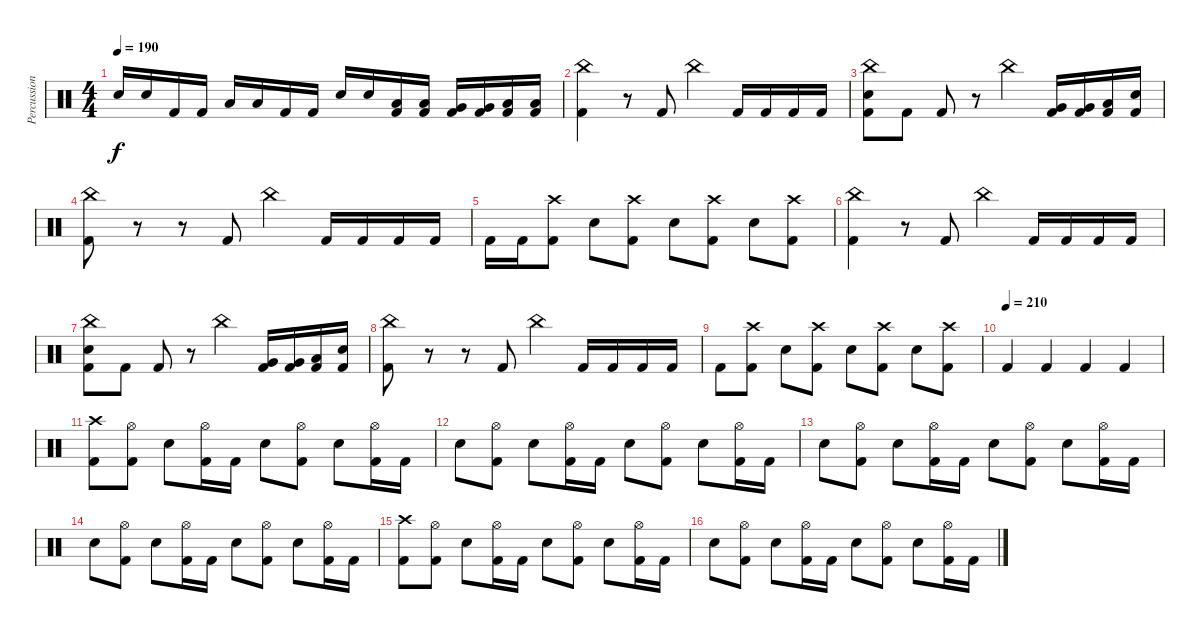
\track ("Percussion" "Percussion") {instrument percussion}
\staff {score}
\articulation defaults
\ts (4 4)
\tempo 190
\clef neutral
\ks c "Snare (hit) 2".16{dy f} "Snare (hit) 2".16 "Kick (hit) 2".16 "Kick (hit) 2".16 "Low Floor Tom (hit)".16 "Low Floor Tom (hit)".16 "Kick (hit) 2".16 "Kick (hit) 2".16 "Snare (hit) 2".16 "Snare (hit) 2".16
("Low Tom (hit)" "Kick (hit) 2").16 ("Low Tom (hit)" "Kick (hit) 2").16 ("Very Low Tom (hit)" "Kick (hit) 2").16 ("Very Low Tom (hit)" "Kick (hit) 2").16 ("Low Floor Tom (hit)" "Kick (hit) 2").16 ("Low Floor Tom (hit)" "Kick (hit) 2").16 |
("China (hit)" "Kick (hit) 2").4 r.8 "Kick (hit) 2".8 "China (hit)".4 "Kick (hit) 2".16 "Kick (hit) 2".16 "Kick (hit) 2".16 "Kick (hit) 2".16 |
("China (hit)" "Snare (hit) 2" "Kick (hit) 2").8 "Kick (hit) 2".8 "Kick (hit) 2".8 r.8 "China (hit)".4 ("Very Low Tom (hit)" "Kick (hit) 2").16 ("Very Low Tom (hit)" "Kick (hit) 2").16 ("Low Floor Tom (hit)" "Kick (hit) 2").16 ("Snare (hit) 2" "Kick (hit) 2").16 |
("China (hit)" "Kick (hit) 2").8 r.8 r.8 "Kick (hit) 2".8 "China (hit)".4 "Kick (hit) 2".16 "Kick (hit) 2".16 "Kick (hit) 2".16 "Kick (hit) 2".16 |
"Kick (hit) 2".16 "Kick (hit) 2".16 ("Crash high (hit)" "Kick (hit) 2").8 "Snare (hit) 2".8 ("Crash high (hit)" "Kick (hit) 2").8 "Snare (hit) 2".8 ("Crash high (hit)" "Kick (hit) 2").8 "Snare (hit) 2".8 ("Crash high (hit)" "Kick (hit) 2").8 |
("China (hit)" "Kick (hit) 2").4 r.8 "Kick (hit) 2".8 "China (hit)".4 "Kick (hit) 2".16 "Kick (hit) 2".16 "Kick (hit) 2".16 "Kick (hit) 2".16 |
("China (hit)" "Snare (hit) 2" "Kick (hit) 2").8 "Kick (hit) 2".8 "Kick (hit) 2".8 r.8 "China (hit)".4 ("Very Low Tom (hit)" "Kick (hit) 2").16 ("Very Low Tom (hit)" "Kick (hit) 2").16 ("Low Floor Tom (hit)" "Kick (hit) 2").16 ("Snare (hit) 2" "Kick (hit) 2").16 |
("China (hit)" "Kick (hit) 2").8 r.8 r.8 "Kick (hit) 2".8 "China (hit)".4 "Kick (hit) 2".16 "Kick (hit) 2".16 "Kick (hit) 2".16 "Kick (hit) 2".16 |
"Kick (hit) 2".8 ("Crash high (hit)" "Kick (hit) 2").8 "Snare (hit) 2".8 ("Crash high (hit)" "Kick (hit) 2").8 "Snare (hit) 2".8 ("Crash high (hit)" "Kick (hit) 2").8 "Snare (hit) 2".8 ("Crash high (hit)" "Kick (hit) 2").8 |
\tempo (210)
"Kick (hit) 2".4 "Kick (hit) 2".4 "Kick (hit) 2".4 "Kick (hit) 2".4 |
("Crash high (hit)" "Kick (hit) 2").8 ("Hi-Hat (open)" "Kick (hit) 2").8 "Snare (hit) 2".8 ("Hi-Hat (open)" "Kick (hit) 2").16 "Kick (hit) 2".16 "Snare (hit) 2".8 ("Hi-Hat (open)" "Kick (hit) 2").8 "Snare (hit) 2".8 ("Hi-Hat (open)" "Kick (hit) 2").16 "Kick (hit) 2".16 |
"Snare (hit) 2".8 ("Hi-Hat (open)" "Kick (hit) 2").8 "Snare (hit) 2".8 ("Hi-Hat (open)" "Kick (hit) 2").16 "Kick (hit) 2".16 "Snare (hit) 2".8 ("Hi-Hat (open)" "Kick (hit) 2").8 "Snare (hit) 2".8 ("Hi-Hat (open)" "Kick (hit) 2").16 "Kick (hit) 2".16 |
"Snare (hit) 2".8 ("Hi-Hat (open)" "Kick (hit) 2").8 "Snare (hit) 2".8 ("Hi-Hat (open)" "Kick (hit) 2").16 "Kick (hit) 2".16 "Snare (hit) 2".8 ("Hi-Hat (open)" "Kick (hit) 2").8 "Snare (hit) 2".8 ("Hi-Hat (open)" "Kick (hit) 2").16 "Kick (hit) 2".16 |
"Snare (hit) 2".8 ("Hi-Hat (open)" "Kick (hit) 2").8 "Snare (hit) 2".8 ("Hi-Hat (open)" "Kick (hit) 2").16 "Kick (hit) 2".16 "Snare (hit) 2".8 ("Hi-Hat (open)" "Kick (hit) 2").8 "Snare (hit) 2".8 ("Hi-Hat (open)" "Kick (hit) 2").16 "Kick (hit) 2".16 |
("Crash high (hit)" "Kick (hit) 2").8 ("Hi-Hat (open)" "Kick (hit) 2").8 "Snare (hit) 2".8 ("Hi-Hat (open)" "Kick (hit) 2").16 "Kick (hit) 2".16 "Snare (hit) 2".8 ("Hi-Hat (open)" "Kick (hit) 2").8 "Snare (hit) 2".8 ("Hi-Hat (open)" "Kick (hit) 2").16 "Kick (hit) 2".16 |
"Snare (hit) 2".8 ("Hi-Hat (open)" "Kick (hit) 2").8 "Snare (hit) 2".8 ("Hi-Hat (open)" "Kick (hit) 2").16 "Kick (hit) 2".16 "Snare (hit) 2".8 ("Hi-Hat (open)" "Kick (hit) 2").8 "Snare (hit) 2".8 ("Hi-Hat (open)" "Kick (hit) 2").16 "Kick (hit) 2".16
